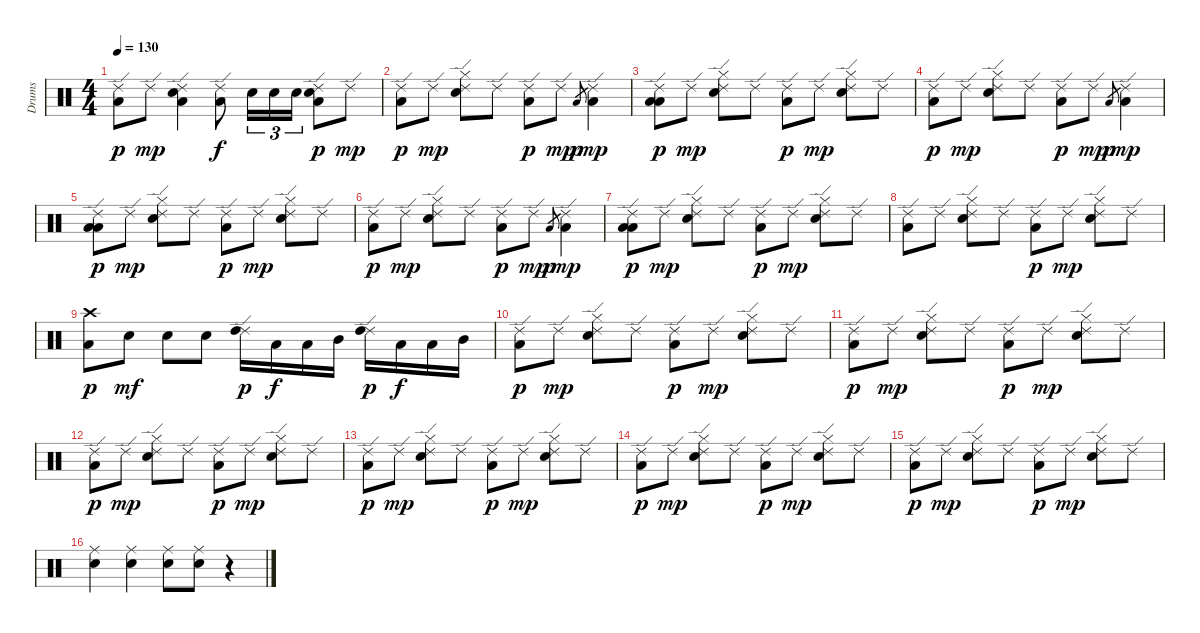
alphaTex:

\track ("Drums" "Drums") {instrument percussion}
\staff {score}
\articulation defaults
\ts (4 4)
\tempo 130
\clef neutral
\ks c
("Ride (edge) 2" "Low Floor Tom (hit)").8{dy p} "Ride (edge) 2".8{dy mp} ("Ride (edge) 2" "Electric Snare (hit)" "Low Floor Tom (hit)").4 ("Ride (edge) 2" "Low Floor Tom (hit)").8{dy f} "Snare (hit) 2".16{tu (3 2)} "Snare (hit) 2".16{tu (3 2)} "Snare (hit) 2".16{tu (3 2)} ("Ride (edge) 2" "Electric Snare (hit)" "Low Floor Tom (hit)").8{dy p} "Ride (edge) 2".8{dy mp} |
("Ride (edge) 2" "Low Floor Tom (hit)").8{dy p} "Ride (edge) 2".8{dy mp} ("Ride (edge) 2" "Electric Snare (hit)" "Hi-Hat (closed)").8 "Ride (edge) 2".8 ("Ride (edge) 2" "Low Floor Tom (hit)").8{dy p} "Ride (edge) 2".8{dy mp} "Low Floor Tom (hit)".8{gr dy p} ("Ride (edge) 2" "Low Tom (hit)").4{dy mp} |
("Ride (edge) 2" "Low Tom (hit)" "Low Floor Tom (hit)").8{dy p} "Ride (edge) 2".8{dy mp} ("Ride (edge) 2" "Electric Snare (hit)" "Hi-Hat (closed)").8 "Ride (edge) 2".8 ("Ride (edge) 2" "Low Floor Tom (hit)").8{dy p} "Ride (edge) 2".8{dy mp} ("Ride (edge) 2" "Electric Snare (hit)" "Hi-Hat (closed)").8 "Ride (edge) 2".8 |
("Ride (edge) 2" "Low Floor Tom (hit)").8{dy p} "Ride (edge) 2".8{dy mp} ("Ride (edge) 2" "Electric Snare (hit)" "Hi-Hat (closed)").8 "Ride (edge) 2".8 ("Ride (edge) 2" "Low Floor Tom (hit)").8{dy p} "Ride (edge) 2".8{dy mp} "Low Floor Tom (hit)".8{gr dy p} ("Ride (edge) 2" "Low Tom (hit)").4{dy mp} |
("Ride (edge) 2" "Low Tom (hit)" "Low Floor Tom (hit)").8{dy p} "Ride (edge) 2".8{dy mp} ("Ride (edge) 2" "Electric Snare (hit)" "Hi-Hat (closed)").8 "Ride (edge) 2".8 ("Ride (edge) 2" "Low Floor Tom (hit)").8{dy p} "Ride (edge) 2".8{dy mp} ("Ride (edge) 2" "Electric Snare (hit)" "Hi-Hat (closed)").8 "Ride (edge) 2".8 |
("Ride (edge) 2" "Low Floor Tom (hit)").8{dy p} "Ride (edge) 2".8{dy mp} ("Ride (edge) 2" "Electric Snare (hit)" "Hi-Hat (closed)").8 "Ride (edge) 2".8 ("Ride (edge) 2" "Low Floor Tom (hit)").8{dy p} "Ride (edge) 2".8{dy mp} "Low Floor Tom (hit)".8{gr dy p} ("Ride (edge) 2" "Low Tom (hit)").4{dy mp} |
("Ride (edge) 2" "Low Tom (hit)" "Low Floor Tom (hit)").8{dy p} "Ride (edge) 2".8{dy mp} ("Ride (edge) 2" "Electric Snare (hit)" "Hi-Hat (closed)").8 "Ride (edge) 2".8 ("Ride (edge) 2" "Low Floor Tom (hit)").8{dy p} "Ride (edge) 2".8{dy mp} ("Ride (edge) 2" "Electric Snare (hit)" "Hi-Hat (closed)").8 "Ride (edge) 2".8 |
("Ride (edge) 2" "Low Floor Tom (hit)").8 "Ride (edge) 2".8 ("Ride (edge) 2" "Electric Snare (hit)" "Hi-Hat (closed)").8 "Ride (edge) 2".8 ("Ride (edge) 2" "Low Floor Tom (hit)").8{dy p} "Ride (edge) 2".8{dy mp} ("Ride (edge) 2" "Electric Snare (hit)" "Hi-Hat (closed)").8 "Ride (edge) 2".8 |
("Crash high (hit)" "Low Floor Tom (hit)").8{dy p} "Electric Snare (hit)".8{dy mf} "Electric Snare (hit)".8 "Electric Snare (hit)".8 ("Ride (edge) 2" "High Tom (hit)").16{dy p} "Low Tom (hit)".16{dy f} "Low Tom (hit)".16 "Mid Tom (hit)".16 ("Ride (edge) 2" "High Tom (hit)").16{dy p} "Low Tom (hit)".16{dy f} "Low Tom (hit)".16 "Mid Tom (hit)".16 |
("Ride (edge) 2" "Low Floor Tom (hit)").8{dy p} "Ride (edge) 2".8{dy mp} ("Ride (edge) 2" "Electric Snare (hit)" "Hi-Hat (closed)").8 "Ride (edge) 2".8 ("Ride (edge) 2" "Low Floor Tom (hit)").8{dy p} "Ride (edge) 2".8{dy mp} ("Ride (edge) 2" "Electric Snare (hit)" "Hi-Hat (closed)").8 "Ride (edge) 2".8 |
("Ride (edge) 2" "Low Floor Tom (hit)").8{dy p} "Ride (edge) 2".8{dy mp} ("Ride (edge) 2" "Electric Snare (hit)" "Hi-Hat (closed)").8 "Ride (edge) 2".8 ("Ride (edge) 2" "Low Floor Tom (hit)").8{dy p} "Ride (edge) 2".8{dy mp} ("Ride (edge) 2" "Electric Snare (hit)" "Hi-Hat (closed)").8 "Ride (edge) 2".8 |
("Ride (edge) 2" "Low Floor Tom (hit)").8{dy p} "Ride (edge) 2".8{dy mp} ("Ride (edge) 2" "Electric Snare (hit)" "Hi-Hat (closed)").8 "Ride (edge) 2".8 ("Ride (edge) 2" "Low Floor Tom (hit)").8{dy p} "Ride (edge) 2".8{dy mp} ("Ride (edge) 2" "Electric Snare (hit)" "Hi-Hat (closed)").8 "Ride (edge) 2".8 |
("Ride (edge) 2" "Low Floor Tom (hit)").8{dy p} "Ride (edge) 2".8{dy mp} ("Ride (edge) 2" "Electric Snare (hit)" "Hi-Hat (closed)").8 "Ride (edge) 2".8 ("Ride (edge) 2" "Low Floor Tom (hit)").8{dy p} "Ride (edge) 2".8{dy mp} ("Ride (edge) 2" "Electric Snare (hit)" "Hi-Hat (closed)").8 "Ride (edge) 2".8 |
("Ride (edge) 2" "Low Floor Tom (hit)").8{dy p} "Ride (edge) 2".8{dy mp} ("Ride (edge) 2" "Electric Snare (hit)" "Hi-Hat (closed)").8 "Ride (edge) 2".8 ("Ride (edge) 2" "Low Floor Tom (hit)").8{dy p} "Ride (edge) 2".8{dy mp} ("Ride (edge) 2" "Electric Snare (hit)" "Hi-Hat (closed)").8 "Ride (edge) 2".8 |
("Ride (edge) 2" "Low Floor Tom (hit)").8{dy p} "Ride (edge) 2".8{dy mp} ("Ride (edge) 2" "Electric Snare (hit)" "Hi-Hat (closed)").8 "Ride (edge) 2".8 ("Ride (edge) 2" "Low Floor Tom (hit)").8{dy p} "Ride (edge) 2".8{dy mp} ("Ride (edge) 2" "Electric Snare (hit)" "Hi-Hat (closed)").8 "Ride (edge) 2".8 |
("Ride (middle)" "Electric Snare (hit)").4 ("Ride (middle)" "Electric Snare (hit)").4 ("Ride (middle)" "Electric Snare (hit)").8 ("Ride (middle)" "Electric Snare (hit)").8 r.4
